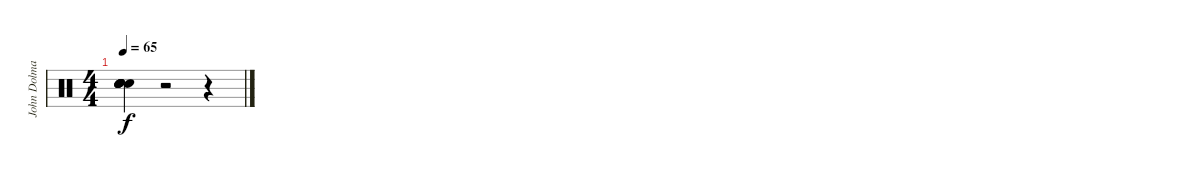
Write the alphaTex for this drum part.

\track ("John Dolmayan: Drums" "John Dolma") {instrument percussion}
\staff {score}
\articulation defaults
\ts (4 4)
\tempo 65
\clef neutral
\ks c
("Snare (hit)"{t} "Snare (hit)"{t} "Snare (hit)" "Snare (hit)" "Snare (hit)" "Snare (hit)").4{dy f} r.2 r.4
